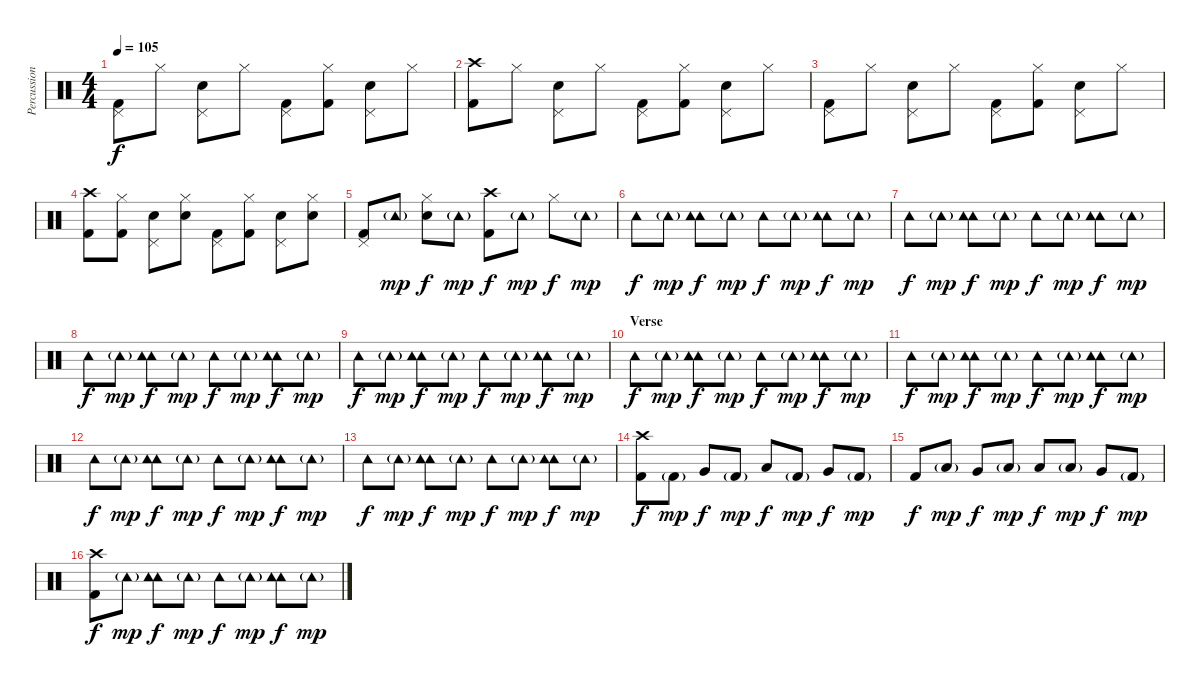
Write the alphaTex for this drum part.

\track ("Percussion" "Percussion") {instrument percussion}
\staff {score}
\articulation defaults
\ts (4 4)
\tempo 105
\clef neutral
\ks c
("Kick (hit) 2" "Pedal Hi-Hat (hit)").8{dy f} "Hi-Hat (closed)".8 ("Electric Snare (hit)" "Pedal Hi-Hat (hit)").8 "Hi-Hat (closed)".8 ("Kick (hit) 2" "Pedal Hi-Hat (hit)").8 ("Kick (hit) 2" "Hi-Hat (closed)").8 ("Electric Snare (hit)" "Pedal Hi-Hat (hit)").8 "Hi-Hat (closed)".8 |
("Kick (hit) 2" "Crash high (hit)").8 "Hi-Hat (closed)".8 ("Electric Snare (hit)" "Pedal Hi-Hat (hit)").8 "Hi-Hat (closed)".8 ("Kick (hit) 2" "Pedal Hi-Hat (hit)").8 ("Kick (hit) 2" "Hi-Hat (closed)").8 ("Electric Snare (hit)" "Pedal Hi-Hat (hit)").8 "Hi-Hat (closed)".8 |
("Kick (hit) 2" "Pedal Hi-Hat (hit)").8 "Hi-Hat (closed)".8 ("Electric Snare (hit)" "Pedal Hi-Hat (hit)").8 "Hi-Hat (closed)".8 ("Kick (hit) 2" "Pedal Hi-Hat (hit)").8 ("Kick (hit) 2" "Hi-Hat (closed)").8 ("Electric Snare (hit)" "Pedal Hi-Hat (hit)").8 "Hi-Hat (closed)".8 |
("Kick (hit) 2" "Crash high (hit)").8 ("Kick (hit) 2" "Hi-Hat (closed)").8 ("Electric Snare (hit)" "Pedal Hi-Hat (hit)").8 ("Electric Snare (hit)" "Hi-Hat (closed)").8 ("Kick (hit) 2" "Pedal Hi-Hat (hit)").8 ("Kick (hit) 2" "Hi-Hat (closed)").8 ("Electric Snare (hit)" "Pedal Hi-Hat (hit)").8 ("Electric Snare (hit)" "Hi-Hat (closed)").8 |
("Kick (hit) 2" "Pedal Hi-Hat (hit)").8 "Tambourine (hit)"{g}.8{dy mp} ("Electric Snare (hit)" "Hi-Hat (closed)").8{dy f} "Tambourine (hit)"{g}.8{dy mp} ("Kick (hit) 2" "Crash high (hit)").8{dy f} "Tambourine (hit)"{g}.8{dy mp} "Hi-Hat (closed)".8{dy f} "Tambourine (hit)"{g}.8{dy mp} |
"Tambourine (hit)".8{dy f} "Tambourine (hit)"{g}.8{dy mp} ("Tambourine (hit)" "Tambourine (hit)").8{dy f} "Tambourine (hit)"{g}.8{dy mp} "Tambourine (hit)".8{dy f} "Tambourine (hit)"{g}.8{dy mp} ("Tambourine (hit)" "Tambourine (hit)").8{dy f} "Tambourine (hit)"{g}.8{dy mp} |
"Tambourine (hit)".8{dy f} "Tambourine (hit)"{g}.8{dy mp} ("Tambourine (hit)" "Tambourine (hit)").8{dy f} "Tambourine (hit)"{g}.8{dy mp} "Tambourine (hit)".8{dy f} "Tambourine (hit)"{g}.8{dy mp} ("Tambourine (hit)" "Tambourine (hit)").8{dy f} "Tambourine (hit)"{g}.8{dy mp} |
"Tambourine (hit)".8{dy f} "Tambourine (hit)"{g}.8{dy mp} ("Tambourine (hit)" "Tambourine (hit)").8{dy f} "Tambourine (hit)"{g}.8{dy mp} "Tambourine (hit)".8{dy f} "Tambourine (hit)"{g}.8{dy mp} ("Tambourine (hit)" "Tambourine (hit)").8{dy f} "Tambourine (hit)"{g}.8{dy mp} |
"Tambourine (hit)".8{dy f} "Tambourine (hit)"{g}.8{dy mp} ("Tambourine (hit)" "Tambourine (hit)").8{dy f} "Tambourine (hit)"{g}.8{dy mp} "Tambourine (hit)".8{dy f} "Tambourine (hit)"{g}.8{dy mp} ("Tambourine (hit)" "Tambourine (hit)").8{dy f} "Tambourine (hit)"{g}.8{dy mp} |
\section ("" "Verse")
"Tambourine (hit)".8{dy f} "Tambourine (hit)"{g}.8{dy mp} ("Tambourine (hit)" "Tambourine (hit)").8{dy f} "Tambourine (hit)"{g}.8{dy mp} "Tambourine (hit)".8{dy f} "Tambourine (hit)"{g}.8{dy mp} ("Tambourine (hit)" "Tambourine (hit)").8{dy f} "Tambourine (hit)"{g}.8{dy mp} |
"Tambourine (hit)".8{dy f} "Tambourine (hit)"{g}.8{dy mp} ("Tambourine (hit)" "Tambourine (hit)").8{dy f} "Tambourine (hit)"{g}.8{dy mp} "Tambourine (hit)".8{dy f} "Tambourine (hit)"{g}.8{dy mp} ("Tambourine (hit)" "Tambourine (hit)").8{dy f} "Tambourine (hit)"{g}.8{dy mp} |
"Tambourine (hit)".8{dy f} "Tambourine (hit)"{g}.8{dy mp} ("Tambourine (hit)" "Tambourine (hit)").8{dy f} "Tambourine (hit)"{g}.8{dy mp} "Tambourine (hit)".8{dy f} "Tambourine (hit)"{g}.8{dy mp} ("Tambourine (hit)" "Tambourine (hit)").8{dy f} "Tambourine (hit)"{g}.8{dy mp} |
"Tambourine (hit)".8{dy f} "Tambourine (hit)"{g}.8{dy mp} ("Tambourine (hit)" "Tambourine (hit)").8{dy f} "Tambourine (hit)"{g}.8{dy mp} "Tambourine (hit)".8{dy f} "Tambourine (hit)"{g}.8{dy mp} ("Tambourine (hit)" "Tambourine (hit)").8{dy f} "Tambourine (hit)"{g}.8{dy mp} |
("Kick (hit) 2" "Crash high (hit)").8{dy f} "Kick (hit) 2"{g}.8{dy mp} "Very Low Tom (hit)".8{dy f} "Kick (hit) 2"{g}.8{dy mp} "Low Floor Tom (hit)".8{dy f} "Kick (hit) 2"{g}.8{dy mp} "Very Low Tom (hit)".8{dy f} "Kick (hit) 2"{g}.8{dy mp} |
"Kick (hit) 2".8{dy f} "Low Tom (hit)"{g}.8{dy mp} "Very Low Tom (hit)".8{dy f} "Low Tom (hit)"{g}.8{dy mp} "Low Floor Tom (hit)".8{dy f} "Low Tom (hit)"{g}.8{dy mp} "Very Low Tom (hit)".8{dy f} "Kick (hit) 2"{g}.8{dy mp} |
("Kick (hit) 2" "Crash high (hit)").8{dy f} "Tambourine (hit)"{g}.8{dy mp} ("Tambourine (hit)" "Tambourine (hit)").8{dy f} "Tambourine (hit)"{g}.8{dy mp} "Tambourine (hit)".8{dy f} "Tambourine (hit)"{g}.8{dy mp} ("Tambourine (hit)" "Tambourine (hit)").8{dy f} "Tambourine (hit)"{g}.8{dy mp}
